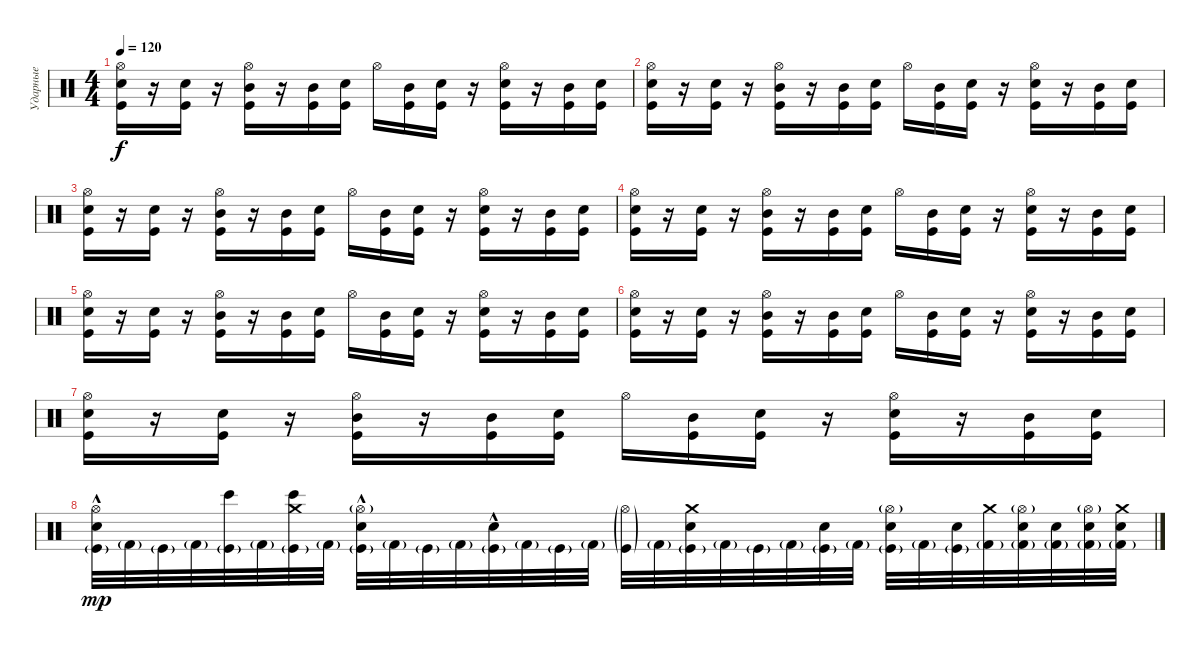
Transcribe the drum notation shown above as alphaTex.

\track ("Ударные" "Ударные") {instrument percussion}
\staff {score}
\articulation defaults
\ts (4 4)
\tempo 120
\clef neutral
\ks c
("Hi-Hat (open)" "Snare (hit) 2" "Kick (hit)").16{dy f} r.16 ("Snare (hit) 2" "Kick (hit)").16 r.16 ("Hi-Hat (open)" "Mid Tom (hit)" "Kick (hit)").16 r.16 ("Mid Tom (hit)" "Kick (hit)").16 ("Snare (hit) 2" "Kick (hit)").16 "Hi-Hat (open)".16 ("Mid Tom (hit)" "Kick (hit)").16 ("Snare (hit) 2" "Kick (hit)").16 r.16 ("Hi-Hat (open)" "Snare (hit) 2" "Kick (hit)").16 r.16 ("Mid Tom (hit)" "Kick (hit)").16 ("Snare (hit) 2" "Kick (hit)").16 |
("Hi-Hat (open)" "Snare (hit) 2" "Kick (hit)").16 r.16 ("Snare (hit) 2" "Kick (hit)").16 r.16 ("Hi-Hat (open)" "Mid Tom (hit)" "Kick (hit)").16 r.16 ("Mid Tom (hit)" "Kick (hit)").16 ("Snare (hit) 2" "Kick (hit)").16 "Hi-Hat (open)".16 ("Mid Tom (hit)" "Kick (hit)").16 ("Snare (hit) 2" "Kick (hit)").16 r.16 ("Hi-Hat (open)" "Snare (hit) 2" "Kick (hit)").16 r.16 ("Mid Tom (hit)" "Kick (hit)").16 ("Snare (hit) 2" "Kick (hit)").16 |
("Hi-Hat (open)" "Snare (hit) 2" "Kick (hit)").16 r.16 ("Snare (hit) 2" "Kick (hit)").16 r.16 ("Hi-Hat (open)" "Mid Tom (hit)" "Kick (hit)").16 r.16 ("Mid Tom (hit)" "Kick (hit)").16 ("Snare (hit) 2" "Kick (hit)").16 "Hi-Hat (open)".16 ("Mid Tom (hit)" "Kick (hit)").16 ("Snare (hit) 2" "Kick (hit)").16 r.16 ("Hi-Hat (open)" "Snare (hit) 2" "Kick (hit)").16 r.16 ("Mid Tom (hit)" "Kick (hit)").16 ("Snare (hit) 2" "Kick (hit)").16 |
("Hi-Hat (open)" "Snare (hit) 2" "Kick (hit)").16 r.16 ("Snare (hit) 2" "Kick (hit)").16 r.16 ("Hi-Hat (open)" "Mid Tom (hit)" "Kick (hit)").16 r.16 ("Mid Tom (hit)" "Kick (hit)").16 ("Snare (hit) 2" "Kick (hit)").16 "Hi-Hat (open)".16 ("Mid Tom (hit)" "Kick (hit)").16 ("Snare (hit) 2" "Kick (hit)").16 r.16 ("Hi-Hat (open)" "Snare (hit) 2" "Kick (hit)").16 r.16 ("Mid Tom (hit)" "Kick (hit)").16 ("Snare (hit) 2" "Kick (hit)").16 |
("Hi-Hat (open)" "Snare (hit) 2" "Kick (hit)").16 r.16 ("Snare (hit) 2" "Kick (hit)").16 r.16 ("Hi-Hat (open)" "Mid Tom (hit)" "Kick (hit)").16 r.16 ("Mid Tom (hit)" "Kick (hit)").16 ("Snare (hit) 2" "Kick (hit)").16 "Hi-Hat (open)".16 ("Mid Tom (hit)" "Kick (hit)").16 ("Snare (hit) 2" "Kick (hit)").16 r.16 ("Hi-Hat (open)" "Snare (hit) 2" "Kick (hit)").16 r.16 ("Mid Tom (hit)" "Kick (hit)").16 ("Snare (hit) 2" "Kick (hit)").16 |
("Hi-Hat (open)" "Snare (hit) 2" "Kick (hit)").16 r.16 ("Snare (hit) 2" "Kick (hit)").16 r.16 ("Hi-Hat (open)" "Mid Tom (hit)" "Kick (hit)").16 r.16 ("Mid Tom (hit)" "Kick (hit)").16 ("Snare (hit) 2" "Kick (hit)").16 "Hi-Hat (open)".16 ("Mid Tom (hit)" "Kick (hit)").16 ("Snare (hit) 2" "Kick (hit)").16 r.16 ("Hi-Hat (open)" "Snare (hit) 2" "Kick (hit)").16 r.16 ("Mid Tom (hit)" "Kick (hit)").16 ("Snare (hit) 2" "Kick (hit)").16 |
("Hi-Hat (open)" "Snare (hit) 2" "Kick (hit)").16 r.16 ("Snare (hit) 2" "Kick (hit)").16 r.16 ("Hi-Hat (open)" "Mid Tom (hit)" "Kick (hit)").16 r.16 ("Mid Tom (hit)" "Kick (hit)").16 ("Snare (hit) 2" "Kick (hit)").16 "Hi-Hat (open)".16 ("Mid Tom (hit)" "Kick (hit)").16 ("Snare (hit) 2" "Kick (hit)").16 r.16 ("Hi-Hat (open)" "Snare (hit) 2" "Kick (hit)").16 r.16 ("Mid Tom (hit)" "Kick (hit)").16 ("Snare (hit) 2" "Kick (hit)").16 |
("Hi-Hat (open)" "Snare (hit) 2"{hac} "Kick (hit)"{g}).32{dy mp} "Kick (hit) 2"{g}.32 "Kick (hit)"{g}.32 "Kick (hit) 2"{g}.32 ("Bongo High (hit)" "Kick (hit)"{g}).32 "Kick (hit) 2"{g}.32 ("Crash medium (hit)" "Bongo High (hit)" "Kick (hit)"{g}).32 "Kick (hit) 2"{g}.32 ("Hi-Hat (open)"{g} "Electric Snare (hit)"{hac} "Kick (hit)"{g}).32 "Kick (hit) 2"{g}.32 "Kick (hit)"{g}.32 "Kick (hit) 2"{g}.32 ("Snare (hit) 2"{hac} "Kick (hit)"{g}).32 "Kick (hit) 2"{g}.32 "Kick (hit)"{g}.32 "Kick (hit) 2"{g}.32 ("Hi-Hat (open)"{g} "Kick (hit)"{g}).32 "Kick (hit) 2"{g}.32 ("Crash medium (hit)" "Snare (hit) 2" "Kick (hit)"{g}).32 "Kick (hit) 2"{g}.32 "Kick (hit)"{g}.32 "Kick (hit) 2"{g}.32 ("Snare (hit) 2" "Kick (hit)"{g}).32 "Kick (hit) 2"{g}.32 ("Hi-Hat (open)"{g} "Electric Snare (hit)" "Kick (hit)"{g}).32 "Kick (hit) 2"{g}.32 ("Electric Snare (hit)" "Kick (hit)"{g}).32 ("Crash medium (hit)" "Kick (hit) 2"{g}).32 ("Hi-Hat (open)"{g} "Electric Snare (hit)" "Kick (hit) 2"{g}).32 ("Electric Snare (hit)" "Kick (hit) 2"{g}).32 ("Hi-Hat (open)"{g} "Electric Snare (hit)" "Kick (hit) 2"{g}).32 ("Crash medium (hit)" "Electric Snare (hit)" "Kick (hit) 2"{g}).32
